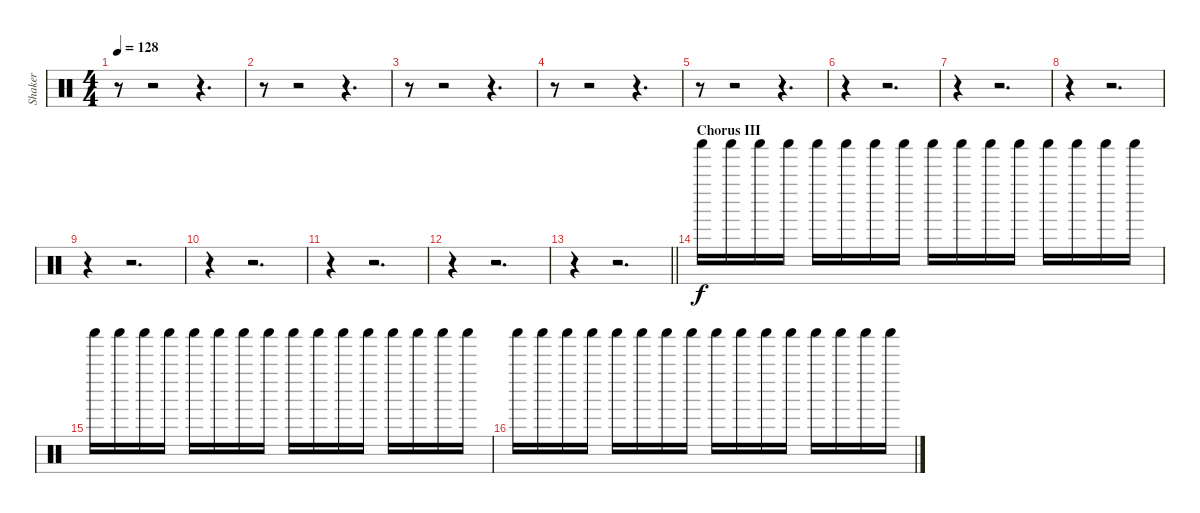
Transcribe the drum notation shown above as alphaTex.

\track ("Shaker" "Shaker") {instrument percussion}
\staff {score}
\articulation defaults
\ts (4 4)
\tempo 128
\clef neutral
\ks c
r.8{dy f} r.2 r.4{d} |
r.8 r.2 r.4{d} |
r.8 r.2 r.4{d} |
r.8 r.2 r.4{d} |
r.8 r.2 r.4{d} |
r.4 r.2{d} |
r.4 r.2{d} |
r.4 r.2{d} |
r.4 r.2{d} |
r.4 r.2{d} |
r.4 r.2{d} |
r.4 r.2{d} |
\barLineRight lightlight
r.4 r.2{d} |
\section ("" "Chorus III")
"Shaker (hit)".16 "Shaker (hit)".16 "Shaker (hit)".16 "Shaker (hit)".16 "Shaker (hit)".16 "Shaker (hit)".16 "Shaker (hit)".16 "Shaker (hit)".16 "Shaker (hit)".16 "Shaker (hit)".16 "Shaker (hit)".16 "Shaker (hit)".16 "Shaker (hit)".16 "Shaker (hit)".16 "Shaker (hit)".16 "Shaker (hit)".16 |
"Shaker (hit)".16 "Shaker (hit)".16 "Shaker (hit)".16 "Shaker (hit)".16 "Shaker (hit)".16 "Shaker (hit)".16 "Shaker (hit)".16 "Shaker (hit)".16 "Shaker (hit)".16 "Shaker (hit)".16 "Shaker (hit)".16 "Shaker (hit)".16 "Shaker (hit)".16 "Shaker (hit)".16 "Shaker (hit)".16 "Shaker (hit)".16 |
"Shaker (hit)".16 "Shaker (hit)".16 "Shaker (hit)".16 "Shaker (hit)".16 "Shaker (hit)".16 "Shaker (hit)".16 "Shaker (hit)".16 "Shaker (hit)".16 "Shaker (hit)".16 "Shaker (hit)".16 "Shaker (hit)".16 "Shaker (hit)".16 "Shaker (hit)".16 "Shaker (hit)".16 "Shaker (hit)".16 "Shaker (hit)".16
